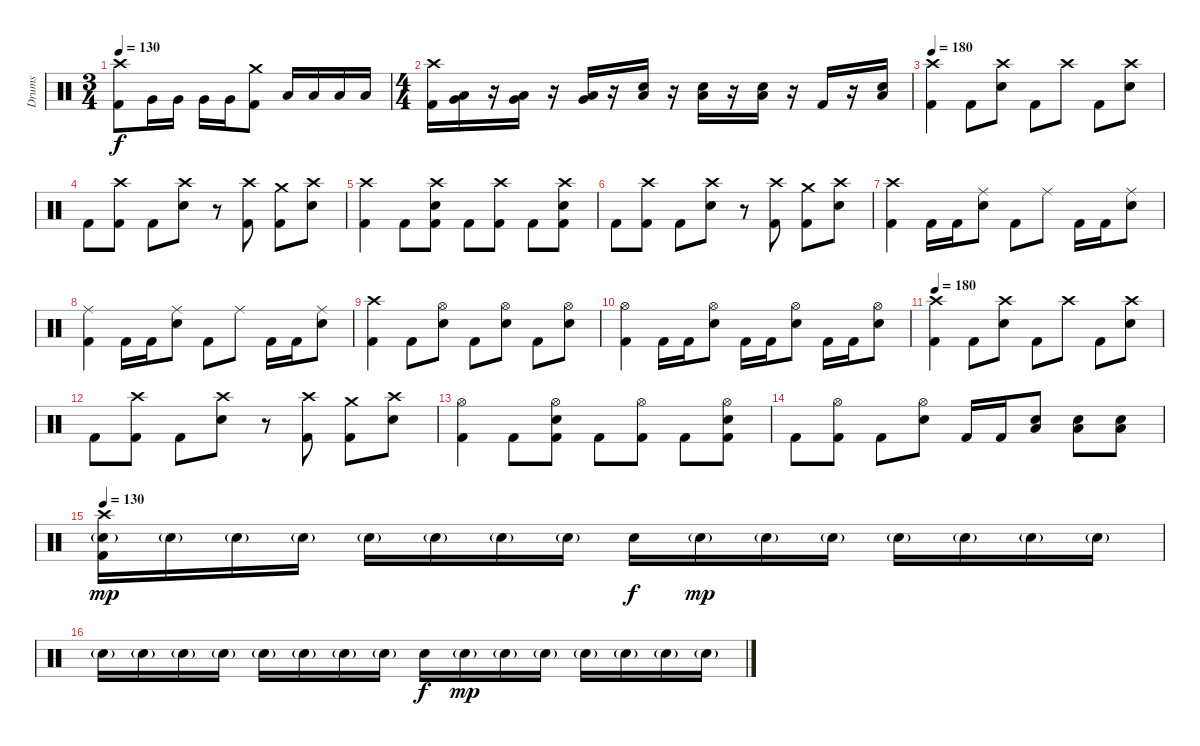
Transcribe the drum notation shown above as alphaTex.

\track ("Drums" "Drums") {instrument percussion}
\staff {score}
\articulation defaults
\ts (3 4)
\tempo 130
\clef neutral
\ks c
("Crash high (hit)" "Kick (hit) 2").8{dy f} "Very Low Tom (hit)".16 "Very Low Tom (hit)".16 "Very Low Tom (hit)".16 "Very Low Tom (hit)".16 ("Crash medium (hit)" "Kick (hit) 2").8 "Low Floor Tom (hit)".16 "Low Floor Tom (hit)".16 "Low Floor Tom (hit)".16 "Low Floor Tom (hit)".16 |
\ts (4 4)
("Crash high (hit)" "Kick (hit) 2").16 ("Low Floor Tom (hit)" "Very Low Tom (hit)").16 r.16 ("Low Floor Tom (hit)" "Very Low Tom (hit)").16 r.16 ("Low Floor Tom (hit)" "Very Low Tom (hit)").16 r.16 ("Low Floor Tom (hit)" "Electric Snare (hit)").16 r.16 ("Low Floor Tom (hit)" "Electric Snare (hit)").16 r.16 ("Low Floor Tom (hit)" "Electric Snare (hit)").16 r.16 "Kick (hit) 2".16 r.16 ("Low Floor Tom (hit)" "Electric Snare (hit)").16 |
\tempo 180
("Crash high (hit)" "Kick (hit) 2").4 "Kick (hit) 2".8 ("Crash high (hit)" "Electric Snare (hit)").8 "Kick (hit) 2".8 "Crash high (hit)".8 "Kick (hit) 2".8 ("Crash high (hit)" "Electric Snare (hit)").8 |
"Kick (hit) 2".8 ("Crash high (hit)" "Kick (hit) 2").8 "Kick (hit) 2".8 ("Crash high (hit)" "Electric Snare (hit)").8 r.8 ("Crash high (hit)" "Kick (hit) 2").8 ("Crash medium (hit)" "Kick (hit) 2").8 ("Crash high (hit)" "Electric Snare (hit)").8 |
("Crash high (hit)" "Kick (hit) 2").4 "Kick (hit) 2".8 ("Crash high (hit)" "Electric Snare (hit)" "Kick (hit) 2").8 "Kick (hit) 2".8 ("Crash high (hit)" "Kick (hit) 2").8 "Kick (hit) 2".8 ("Crash high (hit)" "Electric Snare (hit)" "Kick (hit) 2").8 |
"Kick (hit) 2".8 ("Crash high (hit)" "Kick (hit) 2").8 "Kick (hit) 2".8 ("Crash high (hit)" "Electric Snare (hit)").8 r.8 ("Crash high (hit)" "Kick (hit) 2").8 ("Crash medium (hit)" "Kick (hit) 2").8 ("Crash high (hit)" "Electric Snare (hit)").8 |
("Crash high (hit)" "Kick (hit) 2").4 "Kick (hit) 2".16 "Kick (hit) 2".16 ("Ride (middle)" "Electric Snare (hit)").8 "Kick (hit) 2".8 "Ride (middle)".8 "Kick (hit) 2".16 "Kick (hit) 2".16 ("Ride (middle)" "Electric Snare (hit)").8 |
("Ride (middle)" "Kick (hit) 2").4 "Kick (hit) 2".16 "Kick (hit) 2".16 ("Ride (middle)" "Electric Snare (hit)").8 "Kick (hit) 2".8 "Ride (middle)".8 "Kick (hit) 2".16 "Kick (hit) 2".16 ("Ride (middle)" "Electric Snare (hit)").8 |
("Crash high (hit)" "Kick (hit) 2").4 "Kick (hit) 2".8 ("Hi-Hat (open)" "Electric Snare (hit)").8 "Kick (hit) 2".8 ("Hi-Hat (open)" "Electric Snare (hit)").8 "Kick (hit) 2".8 ("Hi-Hat (open)" "Electric Snare (hit)").8 |
("Hi-Hat (open)" "Kick (hit) 2").4 "Kick (hit) 2".16 "Kick (hit) 2".16 ("Hi-Hat (open)" "Electric Snare (hit)").8 "Kick (hit) 2".16 "Kick (hit) 2".16 ("Hi-Hat (open)" "Electric Snare (hit)").8 "Kick (hit) 2".16 "Kick (hit) 2".16 ("Hi-Hat (open)" "Electric Snare (hit)").8 |
\tempo 180
("Crash high (hit)" "Kick (hit) 2").4 "Kick (hit) 2".8 ("Crash high (hit)" "Electric Snare (hit)").8 "Kick (hit) 2".8 "Crash high (hit)".8 "Kick (hit) 2".8 ("Crash high (hit)" "Electric Snare (hit)").8 |
"Kick (hit) 2".8 ("Crash high (hit)" "Kick (hit) 2").8 "Kick (hit) 2".8 ("Crash high (hit)" "Electric Snare (hit)").8 r.8 ("Crash high (hit)" "Kick (hit) 2").8 ("Crash medium (hit)" "Kick (hit) 2").8 ("Crash high (hit)" "Electric Snare (hit)").8 |
("Hi-Hat (open)" "Kick (hit) 2").4 "Kick (hit) 2".8 ("Hi-Hat (open)" "Electric Snare (hit)" "Kick (hit) 2").8 "Kick (hit) 2".8 ("Hi-Hat (open)" "Kick (hit) 2").8 "Kick (hit) 2".8 ("Hi-Hat (open)" "Electric Snare (hit)" "Kick (hit) 2").8 |
"Kick (hit) 2".8 ("Hi-Hat (open)" "Kick (hit) 2").8 "Kick (hit) 2".8 ("Hi-Hat (open)" "Electric Snare (hit)").8 "Kick (hit) 2".16 "Kick (hit) 2".16 ("Low Floor Tom (hit)" "Electric Snare (hit)").8 ("Low Floor Tom (hit)" "Electric Snare (hit)").8 ("Low Floor Tom (hit)" "Electric Snare (hit)").8 |
\tempo 130
("Crash high (hit)" "Electric Snare (hit)"{g} "Kick (hit) 2").16{dy mp} "Electric Snare (hit)"{g}.16 "Electric Snare (hit)"{g}.16 "Electric Snare (hit)"{g}.16 "Electric Snare (hit)"{g}.16 "Electric Snare (hit)"{g}.16 "Electric Snare (hit)"{g}.16 "Electric Snare (hit)"{g}.16 "Electric Snare (hit)".16{dy f} "Electric Snare (hit)"{g}.16{dy mp} "Electric Snare (hit)"{g}.16 "Electric Snare (hit)"{g}.16 "Electric Snare (hit)"{g}.16 "Electric Snare (hit)"{g}.16 "Electric Snare (hit)"{g}.16 "Electric Snare (hit)"{g}.16 |
"Electric Snare (hit)"{g}.16 "Electric Snare (hit)"{g}.16 "Electric Snare (hit)"{g}.16 "Electric Snare (hit)"{g}.16 "Electric Snare (hit)"{g}.16 "Electric Snare (hit)"{g}.16 "Electric Snare (hit)"{g}.16 "Electric Snare (hit)"{g}.16 "Electric Snare (hit)".16{dy f} "Electric Snare (hit)"{g}.16{dy mp} "Electric Snare (hit)"{g}.16 "Electric Snare (hit)"{g}.16 "Electric Snare (hit)"{g}.16 "Electric Snare (hit)"{g}.16 "Electric Snare (hit)"{g}.16 "Electric Snare (hit)"{g}.16
